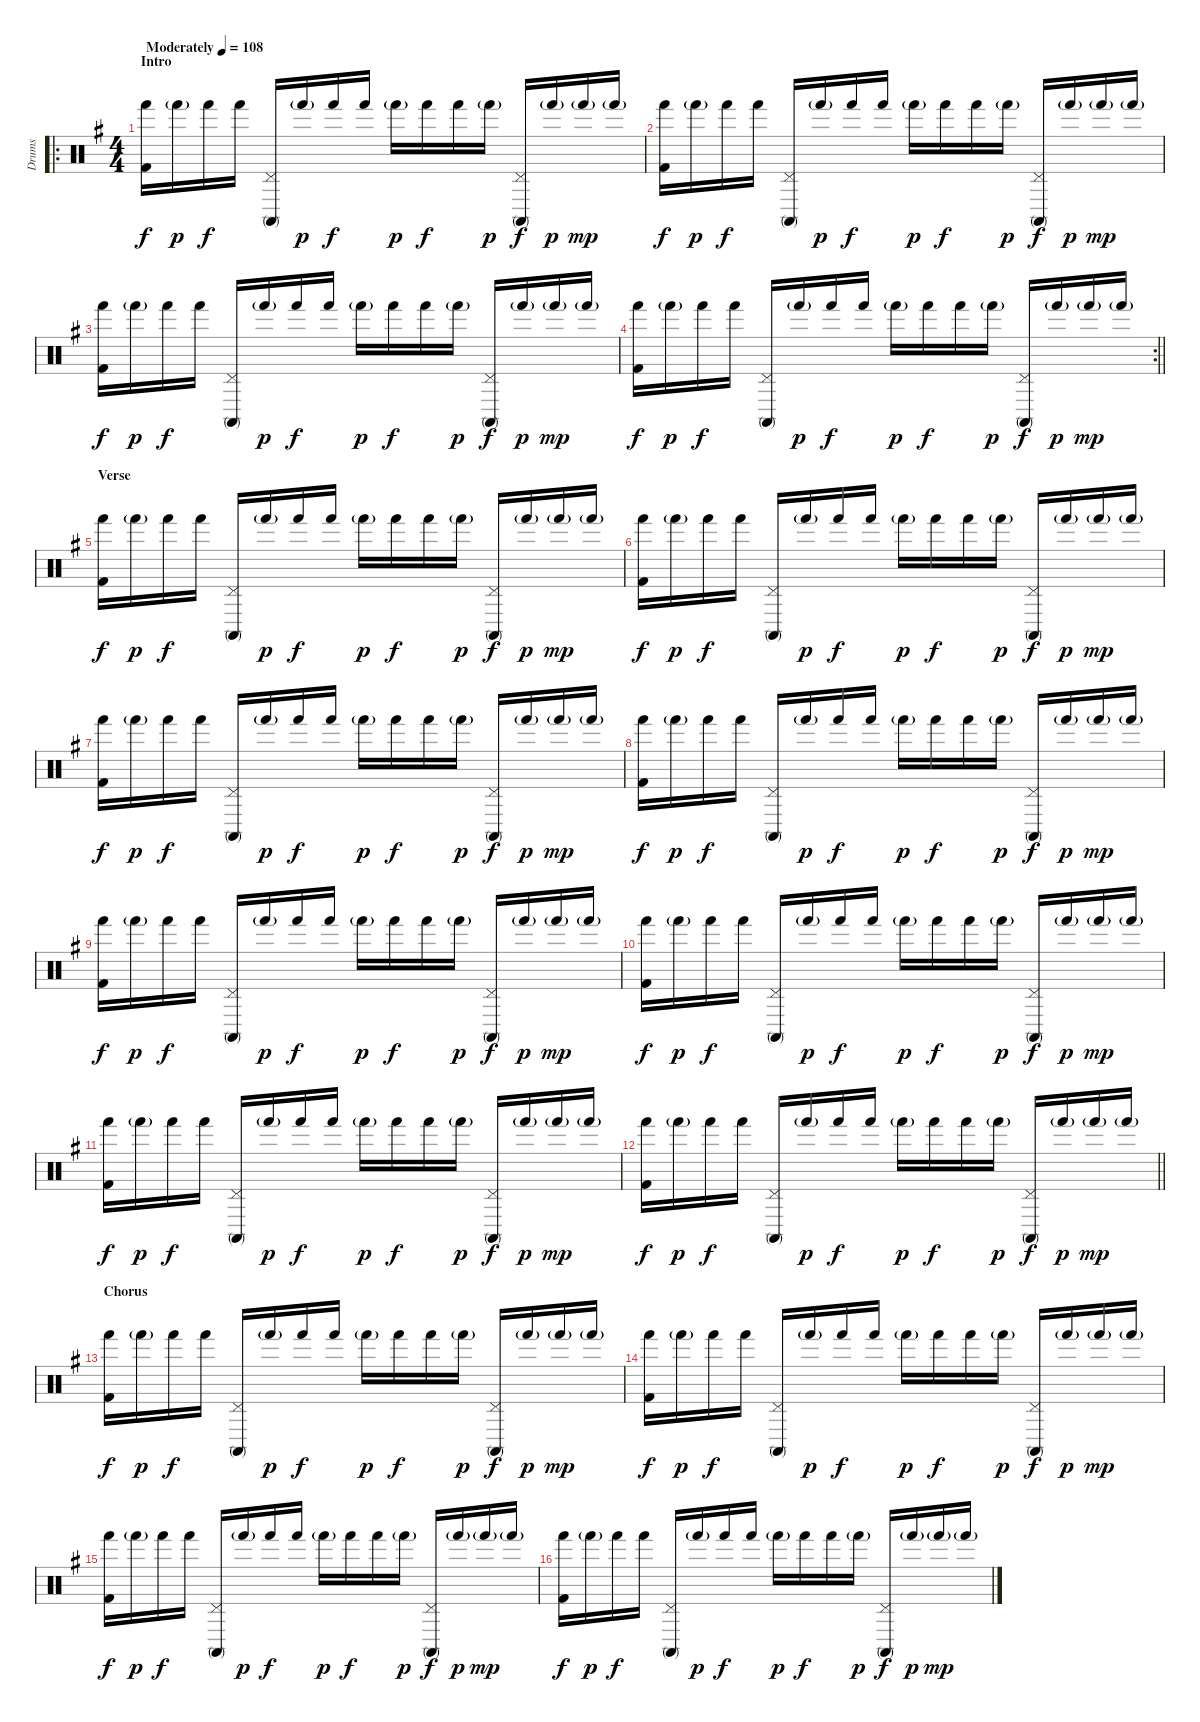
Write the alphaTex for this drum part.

\track ("Drums" "Drums") {instrument percussion}
\staff {score}
\articulation defaults
\ro
\ts (4 4)
\section ("" "Intro")
\tempo (108 "Moderately")
\clef neutral
\ks eminor
("Hand (hit)" "Kick (hit) 2").16{dy f} "Hand (hit)"{g}.16{dy p} "Hand (hit)".16{dy f} "Hand (hit)".16 ("Pedal Hi-Hat (hit)" "Conga high (mute)").16 "Hand (hit)"{g}.16{dy p} "Hand (hit)".16{dy f} "Hand (hit)".16 "Hand (hit)"{g}.16{dy p} "Hand (hit)".16{dy f} "Hand (hit)".16 "Hand (hit)"{g}.16{dy p} ("Pedal Hi-Hat (hit)" "Conga high (mute)").16{dy f} "Hand (hit)"{g}.16{dy p} "Hand (hit)"{g}.16{dy mp} "Hand (hit)"{g}.16 |
("Hand (hit)" "Kick (hit) 2").16{dy f} "Hand (hit)"{g}.16{dy p} "Hand (hit)".16{dy f} "Hand (hit)".16 ("Pedal Hi-Hat (hit)" "Conga high (mute)").16 "Hand (hit)"{g}.16{dy p} "Hand (hit)".16{dy f} "Hand (hit)".16 "Hand (hit)"{g}.16{dy p} "Hand (hit)".16{dy f} "Hand (hit)".16 "Hand (hit)"{g}.16{dy p} ("Pedal Hi-Hat (hit)" "Conga high (mute)").16{dy f} "Hand (hit)"{g}.16{dy p} "Hand (hit)"{g}.16{dy mp} "Hand (hit)"{g}.16 |
("Hand (hit)" "Kick (hit) 2").16{dy f} "Hand (hit)"{g}.16{dy p} "Hand (hit)".16{dy f} "Hand (hit)".16 ("Pedal Hi-Hat (hit)" "Conga high (mute)").16 "Hand (hit)"{g}.16{dy p} "Hand (hit)".16{dy f} "Hand (hit)".16 "Hand (hit)"{g}.16{dy p} "Hand (hit)".16{dy f} "Hand (hit)".16 "Hand (hit)"{g}.16{dy p} ("Pedal Hi-Hat (hit)" "Conga high (mute)").16{dy f} "Hand (hit)"{g}.16{dy p} "Hand (hit)"{g}.16{dy mp} "Hand (hit)"{g}.16 |
\rc 2
\barLineRight lightlight
("Hand (hit)" "Kick (hit) 2").16{dy f} "Hand (hit)"{g}.16{dy p} "Hand (hit)".16{dy f} "Hand (hit)".16 ("Pedal Hi-Hat (hit)" "Conga high (mute)").16 "Hand (hit)"{g}.16{dy p} "Hand (hit)".16{dy f} "Hand (hit)".16 "Hand (hit)"{g}.16{dy p} "Hand (hit)".16{dy f} "Hand (hit)".16 "Hand (hit)"{g}.16{dy p} ("Pedal Hi-Hat (hit)" "Conga high (mute)").16{dy f} "Hand (hit)"{g}.16{dy p} "Hand (hit)"{g}.16{dy mp} "Hand (hit)"{g}.16 |
\section ("" "Verse")
("Hand (hit)" "Kick (hit) 2").16{dy f} "Hand (hit)"{g}.16{dy p} "Hand (hit)".16{dy f} "Hand (hit)".16 ("Pedal Hi-Hat (hit)" "Conga high (mute)").16 "Hand (hit)"{g}.16{dy p} "Hand (hit)".16{dy f} "Hand (hit)".16 "Hand (hit)"{g}.16{dy p} "Hand (hit)".16{dy f} "Hand (hit)".16 "Hand (hit)"{g}.16{dy p} ("Pedal Hi-Hat (hit)" "Conga high (mute)").16{dy f} "Hand (hit)"{g}.16{dy p} "Hand (hit)"{g}.16{dy mp} "Hand (hit)"{g}.16 |
("Hand (hit)" "Kick (hit) 2").16{dy f} "Hand (hit)"{g}.16{dy p} "Hand (hit)".16{dy f} "Hand (hit)".16 ("Pedal Hi-Hat (hit)" "Conga high (mute)").16 "Hand (hit)"{g}.16{dy p} "Hand (hit)".16{dy f} "Hand (hit)".16 "Hand (hit)"{g}.16{dy p} "Hand (hit)".16{dy f} "Hand (hit)".16 "Hand (hit)"{g}.16{dy p} ("Pedal Hi-Hat (hit)" "Conga high (mute)").16{dy f} "Hand (hit)"{g}.16{dy p} "Hand (hit)"{g}.16{dy mp} "Hand (hit)"{g}.16 |
("Hand (hit)" "Kick (hit) 2").16{dy f} "Hand (hit)"{g}.16{dy p} "Hand (hit)".16{dy f} "Hand (hit)".16 ("Pedal Hi-Hat (hit)" "Conga high (mute)").16 "Hand (hit)"{g}.16{dy p} "Hand (hit)".16{dy f} "Hand (hit)".16 "Hand (hit)"{g}.16{dy p} "Hand (hit)".16{dy f} "Hand (hit)".16 "Hand (hit)"{g}.16{dy p} ("Pedal Hi-Hat (hit)" "Conga high (mute)").16{dy f} "Hand (hit)"{g}.16{dy p} "Hand (hit)"{g}.16{dy mp} "Hand (hit)"{g}.16 |
("Hand (hit)" "Kick (hit) 2").16{dy f} "Hand (hit)"{g}.16{dy p} "Hand (hit)".16{dy f} "Hand (hit)".16 ("Pedal Hi-Hat (hit)" "Conga high (mute)").16 "Hand (hit)"{g}.16{dy p} "Hand (hit)".16{dy f} "Hand (hit)".16 "Hand (hit)"{g}.16{dy p} "Hand (hit)".16{dy f} "Hand (hit)".16 "Hand (hit)"{g}.16{dy p} ("Pedal Hi-Hat (hit)" "Conga high (mute)").16{dy f} "Hand (hit)"{g}.16{dy p} "Hand (hit)"{g}.16{dy mp} "Hand (hit)"{g}.16 |
("Hand (hit)" "Kick (hit) 2").16{dy f} "Hand (hit)"{g}.16{dy p} "Hand (hit)".16{dy f} "Hand (hit)".16 ("Pedal Hi-Hat (hit)" "Conga high (mute)").16 "Hand (hit)"{g}.16{dy p} "Hand (hit)".16{dy f} "Hand (hit)".16 "Hand (hit)"{g}.16{dy p} "Hand (hit)".16{dy f} "Hand (hit)".16 "Hand (hit)"{g}.16{dy p} ("Pedal Hi-Hat (hit)" "Conga high (mute)").16{dy f} "Hand (hit)"{g}.16{dy p} "Hand (hit)"{g}.16{dy mp} "Hand (hit)"{g}.16 |
("Hand (hit)" "Kick (hit) 2").16{dy f} "Hand (hit)"{g}.16{dy p} "Hand (hit)".16{dy f} "Hand (hit)".16 ("Pedal Hi-Hat (hit)" "Conga high (mute)").16 "Hand (hit)"{g}.16{dy p} "Hand (hit)".16{dy f} "Hand (hit)".16 "Hand (hit)"{g}.16{dy p} "Hand (hit)".16{dy f} "Hand (hit)".16 "Hand (hit)"{g}.16{dy p} ("Pedal Hi-Hat (hit)" "Conga high (mute)").16{dy f} "Hand (hit)"{g}.16{dy p} "Hand (hit)"{g}.16{dy mp} "Hand (hit)"{g}.16 |
("Hand (hit)" "Kick (hit) 2").16{dy f} "Hand (hit)"{g}.16{dy p} "Hand (hit)".16{dy f} "Hand (hit)".16 ("Pedal Hi-Hat (hit)" "Conga high (mute)").16 "Hand (hit)"{g}.16{dy p} "Hand (hit)".16{dy f} "Hand (hit)".16 "Hand (hit)"{g}.16{dy p} "Hand (hit)".16{dy f} "Hand (hit)".16 "Hand (hit)"{g}.16{dy p} ("Pedal Hi-Hat (hit)" "Conga high (mute)").16{dy f} "Hand (hit)"{g}.16{dy p} "Hand (hit)"{g}.16{dy mp} "Hand (hit)"{g}.16 |
\barLineRight lightlight
("Hand (hit)" "Kick (hit) 2").16{dy f} "Hand (hit)"{g}.16{dy p} "Hand (hit)".16{dy f} "Hand (hit)".16 ("Pedal Hi-Hat (hit)" "Conga high (mute)").16 "Hand (hit)"{g}.16{dy p} "Hand (hit)".16{dy f} "Hand (hit)".16 "Hand (hit)"{g}.16{dy p} "Hand (hit)".16{dy f} "Hand (hit)".16 "Hand (hit)"{g}.16{dy p} ("Pedal Hi-Hat (hit)" "Conga high (mute)").16{dy f} "Hand (hit)"{g}.16{dy p} "Hand (hit)"{g}.16{dy mp} "Hand (hit)"{g}.16 |
\section ("" "Chorus")
("Hand (hit)" "Kick (hit) 2").16{dy f} "Hand (hit)"{g}.16{dy p} "Hand (hit)".16{dy f} "Hand (hit)".16 ("Pedal Hi-Hat (hit)" "Conga high (mute)").16 "Hand (hit)"{g}.16{dy p} "Hand (hit)".16{dy f} "Hand (hit)".16 "Hand (hit)"{g}.16{dy p} "Hand (hit)".16{dy f} "Hand (hit)".16 "Hand (hit)"{g}.16{dy p} ("Pedal Hi-Hat (hit)" "Conga high (mute)").16{dy f} "Hand (hit)"{g}.16{dy p} "Hand (hit)"{g}.16{dy mp} "Hand (hit)"{g}.16 |
("Hand (hit)" "Kick (hit) 2").16{dy f} "Hand (hit)"{g}.16{dy p} "Hand (hit)".16{dy f} "Hand (hit)".16 ("Pedal Hi-Hat (hit)" "Conga high (mute)").16 "Hand (hit)"{g}.16{dy p} "Hand (hit)".16{dy f} "Hand (hit)".16 "Hand (hit)"{g}.16{dy p} "Hand (hit)".16{dy f} "Hand (hit)".16 "Hand (hit)"{g}.16{dy p} ("Pedal Hi-Hat (hit)" "Conga high (mute)").16{dy f} "Hand (hit)"{g}.16{dy p} "Hand (hit)"{g}.16{dy mp} "Hand (hit)"{g}.16 |
("Hand (hit)" "Kick (hit) 2").16{dy f} "Hand (hit)"{g}.16{dy p} "Hand (hit)".16{dy f} "Hand (hit)".16 ("Pedal Hi-Hat (hit)" "Conga high (mute)").16 "Hand (hit)"{g}.16{dy p} "Hand (hit)".16{dy f} "Hand (hit)".16 "Hand (hit)"{g}.16{dy p} "Hand (hit)".16{dy f} "Hand (hit)".16 "Hand (hit)"{g}.16{dy p} ("Pedal Hi-Hat (hit)" "Conga high (mute)").16{dy f} "Hand (hit)"{g}.16{dy p} "Hand (hit)"{g}.16{dy mp} "Hand (hit)"{g}.16 |
("Hand (hit)" "Kick (hit) 2").16{dy f} "Hand (hit)"{g}.16{dy p} "Hand (hit)".16{dy f} "Hand (hit)".16 ("Pedal Hi-Hat (hit)" "Conga high (mute)").16 "Hand (hit)"{g}.16{dy p} "Hand (hit)".16{dy f} "Hand (hit)".16 "Hand (hit)"{g}.16{dy p} "Hand (hit)".16{dy f} "Hand (hit)".16 "Hand (hit)"{g}.16{dy p} ("Pedal Hi-Hat (hit)" "Conga high (mute)").16{dy f} "Hand (hit)"{g}.16{dy p} "Hand (hit)"{g}.16{dy mp} "Hand (hit)"{g}.16
